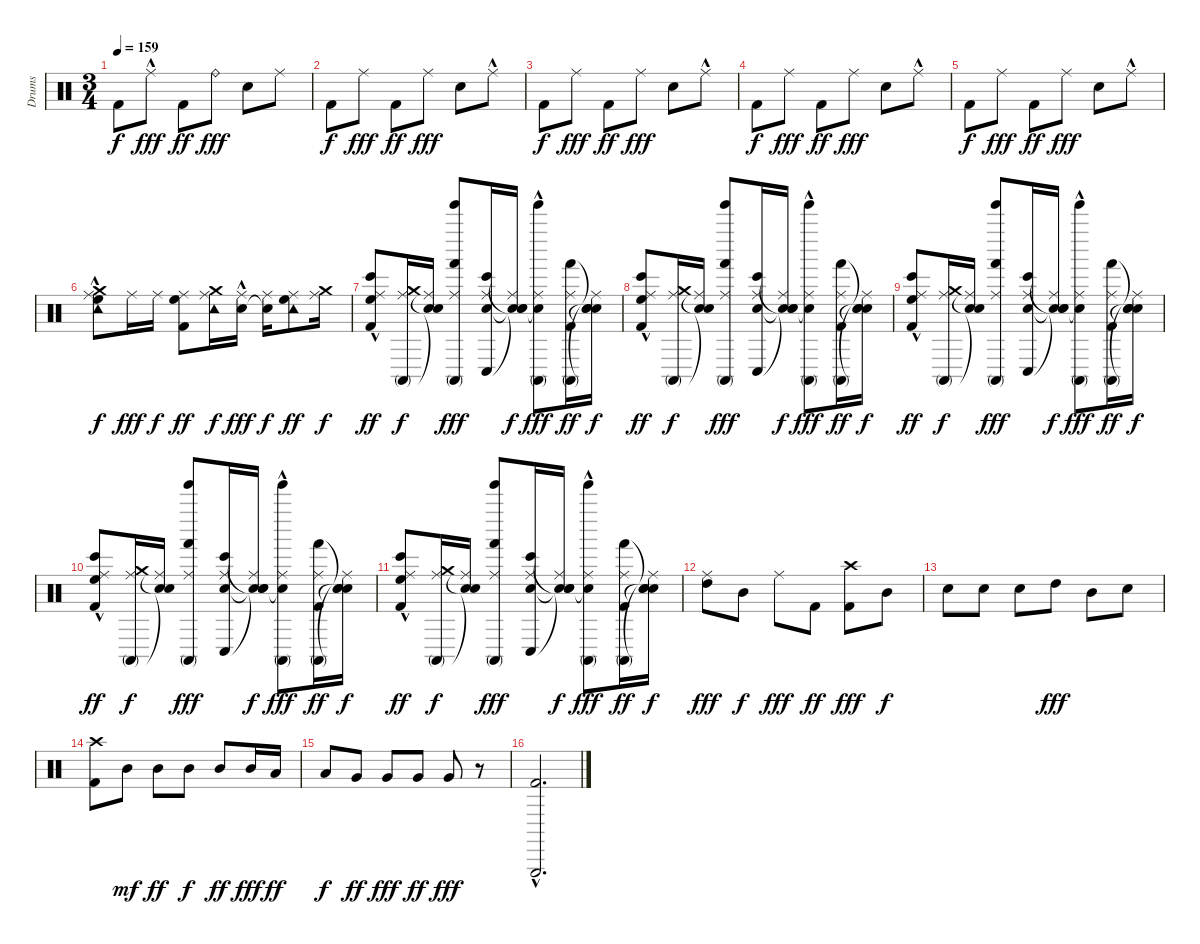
\track ("Drums" "Drums") {instrument percussion}
\staff {score}
\articulation defaults
\ts (3 4)
\tempo 159
\clef neutral
\ks c "Kick (hit) 2".8{dy f} "Ride (middle)"{hac}.8{dy fff} "Kick (hit) 2".8{dy ff} "Ride (bell)".8{dy fff} "Snare (hit) 2".8 "Ride (middle)".8
|
"Kick (hit) 2".8{dy f} "Ride (middle)".8{dy fff} "Kick (hit) 2".8{dy ff} "Ride (middle)".8{dy fff} "Snare (hit) 2".8 "Ride (middle)"{hac}.8 |
"Kick (hit) 2".8{dy f} "Ride (middle)".8{dy fff} "Kick (hit) 2".8{dy ff} "Ride (middle)".8{dy fff} "Snare (hit) 2".8 "Ride (middle)"{hac}.8 |
"Kick (hit) 2".8{dy f} "Ride (middle)".8{dy fff} "Kick (hit) 2".8{dy ff} "Ride (middle)".8{dy fff} "Snare (hit) 2".8 "Ride (middle)"{hac}.8 |
"Kick (hit) 2".8{dy f} "Ride (middle)".8{dy fff} "Kick (hit) 2".8{dy ff} "Ride (middle)".8{dy fff} "Snare (hit) 2".8 "Ride (middle)"{hac}.8 |
("Ride (middle)"{hac} "High Floor Tom (hit)" "Tambourine (hit)" "Crash medium (hit)").8{dy f} "Ride (middle)".16{dy fff} "Ride (middle)".16{dy f} ("Ride (middle)" "Kick (hit) 2" "High Floor Tom (hit)").8{dy ff} ("Ride (middle)" "Crash medium (hit)" "Tambourine (hit)").16{dy f} ("Ride (middle)"{hac} "Snare (hit) 2").16{dy fff} ("Ride (middle)" "Snare (hit)"{t}).16{dy f} ("Ride (middle)" "Tambourine (hit)" "High Floor Tom (hit)").8{dy ff} ("Ride (middle)" "Crash medium (hit)").16{dy f} |
("Kick (hit) 2" "Bongo High (hit)"{hac} "Ride (middle)" "High Floor Tom (hit)").8{dy ff} ("Conga high (mute)" "Ride (middle)" "Crash medium (hit)").16{dy f} ("Snare (hit)"{t} "Ride (middle)" "Snare (hit)"{t}).16 ("Tinkle Bell (hit)" "Hand (hit)" "Ride (middle)" "Conga high (mute)").8{dy fff} ("Snare (hit) 2" "Bongo High (hit)" "Ride (middle)" "Conga low (hit)").16 ("Snare (hit)"{t} "Snare (hit)"{t} "Ride (middle)" "Snare (hit)"{t}).16{dy f} ("Tinkle Bell (hit)" "Conga high (mute)"{hac} "Ride (middle)" "Snare (hit)"{t}).8{dy fff} ("Kick (hit) 2" "Hand (hit)" "Ride (middle)" "Conga high (mute)").16{dy ff} ("Snare (hit)"{t} "Snare (hit)"{t} "Ride (middle)" "Snare (hit)"{t}).16{dy f} |
("Kick (hit) 2" "Bongo High (hit)"{hac} "Ride (middle)" "High Floor Tom (hit)").8{dy ff} ("Conga high (mute)" "Ride (middle)" "Crash medium (hit)").16{dy f} ("Snare (hit)"{t} "Ride (middle)" "Snare (hit)"{t}).16 ("Tinkle Bell (hit)" "Hand (hit)" "Ride (middle)" "Conga high (mute)").8{dy fff} ("Snare (hit) 2" "Bongo High (hit)" "Ride (middle)" "Conga low (hit)").16 ("Snare (hit)"{t} "Snare (hit)"{t} "Ride (middle)" "Snare (hit)"{t}).16{dy f} ("Tinkle Bell (hit)" "Conga high (mute)"{hac} "Ride (middle)" "Snare (hit)"{t}).8{dy fff} ("Kick (hit) 2" "Hand (hit)" "Ride (middle)" "Conga high (mute)").16{dy ff} ("Snare (hit)"{t} "Snare (hit)"{t} "Ride (middle)" "Snare (hit)"{t}).16{dy f} |
("Kick (hit) 2" "Bongo High (hit)"{hac} "Ride (middle)" "High Floor Tom (hit)").8{dy ff} ("Conga high (mute)" "Ride (middle)" "Crash medium (hit)").16{dy f} ("Snare (hit)"{t} "Ride (middle)" "Snare (hit)"{t}).16 ("Tinkle Bell (hit)" "Hand (hit)" "Ride (middle)" "Conga high (mute)").8{dy fff} ("Snare (hit) 2" "Bongo High (hit)" "Ride (middle)" "Conga low (hit)").16 ("Snare (hit)"{t} "Snare (hit)"{t} "Ride (middle)" "Snare (hit)"{t}).16{dy f} ("Tinkle Bell (hit)" "Conga high (mute)"{hac} "Ride (middle)" "Snare (hit)"{t}).8{dy fff} ("Kick (hit) 2" "Hand (hit)" "Ride (middle)" "Conga high (mute)").16{dy ff} ("Snare (hit)"{t} "Snare (hit)"{t} "Ride (middle)" "Snare (hit)"{t}).16{dy f} |
("Kick (hit) 2" "Bongo High (hit)"{hac} "Ride (middle)" "High Floor Tom (hit)").8{dy ff} ("Conga high (mute)" "Ride (middle)" "Crash medium (hit)").16{dy f} ("Snare (hit)"{t} "Ride (middle)" "Snare (hit)"{t}).16 ("Tinkle Bell (hit)" "Hand (hit)" "Ride (middle)" "Conga high (mute)").8{dy fff} ("Snare (hit) 2" "Bongo High (hit)" "Ride (middle)" "Conga low (hit)").16 ("Snare (hit)"{t} "Snare (hit)"{t} "Ride (middle)" "Snare (hit)"{t}).16{dy f} ("Tinkle Bell (hit)" "Conga high (mute)"{hac} "Ride (middle)" "Snare (hit)"{t}).8{dy fff} ("Kick (hit) 2" "Hand (hit)" "Ride (middle)" "Conga high (mute)").16{dy ff} ("Snare (hit)"{t} "Snare (hit)"{t} "Ride (middle)" "Snare (hit)"{t}).16{dy f} |
("Kick (hit) 2" "Bongo High (hit)"{hac} "Ride (middle)" "High Floor Tom (hit)").8{dy ff} ("Conga high (mute)" "Ride (middle)" "Crash medium (hit)").16{dy f} ("Snare (hit)"{t} "Ride (middle)" "Snare (hit)"{t}).16 ("Tinkle Bell (hit)" "Hand (hit)" "Ride (middle)" "Conga high (mute)").8{dy fff} ("Snare (hit) 2" "Bongo High (hit)" "Ride (middle)" "Conga low (hit)").16 ("Snare (hit)"{t} "Snare (hit)"{t} "Ride (middle)" "Snare (hit)"{t}).16{dy f} ("Tinkle Bell (hit)" "Conga high (mute)"{hac} "Ride (middle)" "Snare (hit)"{t}).8{dy fff} ("Kick (hit) 2" "Hand (hit)" "Ride (middle)" "Conga high (mute)").16{dy ff} ("Snare (hit)"{t} "Snare (hit)"{t} "Ride (middle)" "Snare (hit)"{t}).16{dy f} |
("Ride (middle)" "High Tom (hit)").8{dy fff} "Mid Tom (hit)".8{dy f} "Ride (middle)".8{dy fff} "Kick (hit) 2".8{dy ff} ("Kick (hit) 2" "Crash high (hit)").8{dy fff} "Mid Tom (hit)".8{dy f} |
"Snare (hit) 2".8 "Snare (hit) 2".8 "Snare (hit) 2".8 "High Tom (hit)".8{dy fff} "Mid Tom (hit)".8 "Snare (hit) 2".8 |
("Crash high (hit)" "Kick (hit) 2").8 "Mid Tom (hit)".8{dy mf} "Mid Tom (hit)".8{dy ff} "Mid Tom (hit)".8{dy f} "Mid Tom (hit)".8{dy ff} "Mid Tom (hit)".16{dy fff} "Low Tom (hit)".16{dy ff} |
"Low Tom (hit)".8{dy f} "Very Low Tom (hit)".8{dy ff} "Very Low Tom (hit)".8{dy fff} "Very Low Tom (hit)".8{dy ff} "Very Low Tom (hit)".8{dy fff} r.8 |
("Triangle (hit)"{hac} "Kick (hit) 2"{hac}).2{d}
